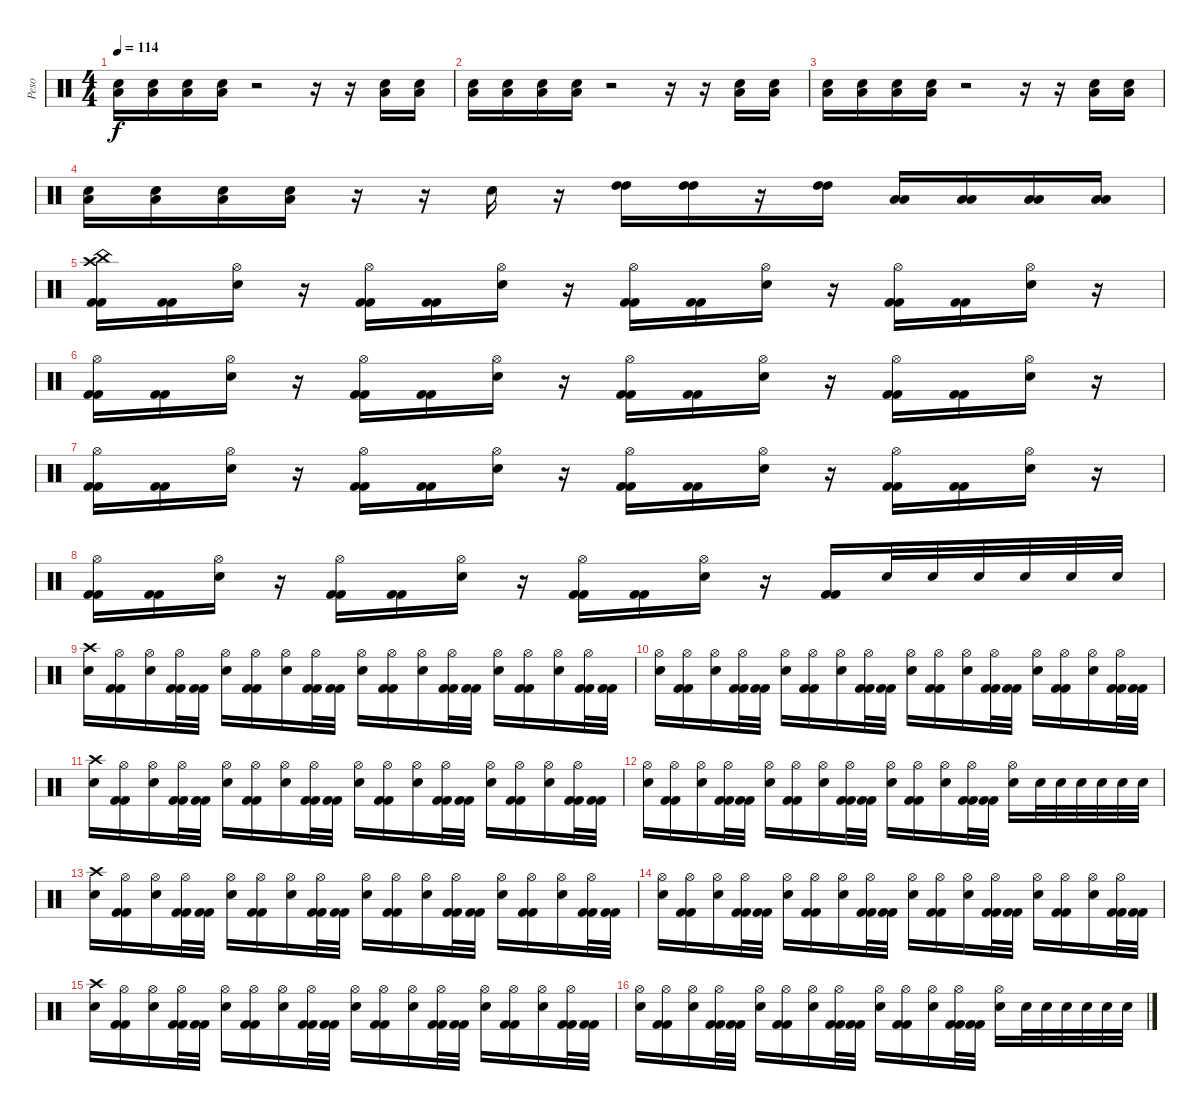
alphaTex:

\track ("Peso" "Peso") {instrument percussion}
\staff {score}
\articulation defaults
\ts (4 4)
\tempo 114
\clef neutral
\ks c
("Low Floor Tom (hit)" "Electric Snare (hit)").16{dy f} ("Low Floor Tom (hit)" "Electric Snare (hit)").16 ("Low Floor Tom (hit)" "Electric Snare (hit)").16 ("Low Floor Tom (hit)" "Electric Snare (hit)").16 r.2 r.16 r.16 ("Low Floor Tom (hit)" "Electric Snare (hit)").16 ("Low Floor Tom (hit)" "Electric Snare (hit)").16 |
("Low Floor Tom (hit)" "Electric Snare (hit)").16 ("Low Floor Tom (hit)" "Electric Snare (hit)").16 ("Low Floor Tom (hit)" "Electric Snare (hit)").16 ("Low Floor Tom (hit)" "Electric Snare (hit)").16 r.2 r.16 r.16 ("Low Floor Tom (hit)" "Electric Snare (hit)").16 ("Low Floor Tom (hit)" "Electric Snare (hit)").16 |
("Low Floor Tom (hit)" "Electric Snare (hit)").16 ("Low Floor Tom (hit)" "Electric Snare (hit)").16 ("Low Floor Tom (hit)" "Electric Snare (hit)").16 ("Low Floor Tom (hit)" "Electric Snare (hit)").16 r.2 r.16 r.16 ("Low Floor Tom (hit)" "Electric Snare (hit)").16 ("Low Floor Tom (hit)" "Electric Snare (hit)").16 |
("Low Floor Tom (hit)" "Electric Snare (hit)").16 ("Low Floor Tom (hit)" "Electric Snare (hit)").16 ("Low Floor Tom (hit)" "Electric Snare (hit)").16 ("Low Floor Tom (hit)" "Electric Snare (hit)").16 r.16 r.16 "Electric Snare (hit)".16 r.16 ("High Tom (hit)" "High Tom (hit)").16{volume 16} ("High Tom (hit)" "High Tom (hit)").16 r.16 ("High Tom (hit)" "High Tom (hit)").16 ("Low Floor Tom (hit)" "Low Floor Tom (hit)").16 ("Low Floor Tom (hit)" "Low Floor Tom (hit)").16 ("Low Floor Tom (hit)" "Low Floor Tom (hit)").16 ("Low Floor Tom (hit)" "Low Floor Tom (hit)").16 |
("Crash high (hit)" "China (hit)" "Kick (hit) 2" "Kick (hit) 2").16{volume 15} ("Kick (hit) 2" "Kick (hit) 2").16 ("Hi-Hat (open)" "Electric Snare (hit)").16 r.16 ("Hi-Hat (open)" "Kick (hit) 2" "Kick (hit) 2").16 ("Kick (hit) 2" "Kick (hit) 2").16 ("Hi-Hat (open)" "Electric Snare (hit)").16 r.16 ("Hi-Hat (open)" "Kick (hit) 2" "Kick (hit) 2").16 ("Kick (hit) 2" "Kick (hit) 2").16 ("Hi-Hat (open)" "Electric Snare (hit)").16 r.16 ("Hi-Hat (open)" "Kick (hit) 2" "Kick (hit) 2").16 ("Kick (hit) 2" "Kick (hit) 2").16 ("Hi-Hat (open)" "Electric Snare (hit)").16 r.16 |
("Hi-Hat (open)" "Kick (hit) 2" "Kick (hit) 2").16 ("Kick (hit) 2" "Kick (hit) 2").16 ("Hi-Hat (open)" "Electric Snare (hit)").16 r.16 ("Hi-Hat (open)" "Kick (hit) 2" "Kick (hit) 2").16 ("Kick (hit) 2" "Kick (hit) 2").16 ("Hi-Hat (open)" "Electric Snare (hit)").16 r.16 ("Hi-Hat (open)" "Kick (hit) 2" "Kick (hit) 2").16 ("Kick (hit) 2" "Kick (hit) 2").16 ("Hi-Hat (open)" "Electric Snare (hit)").16 r.16 ("Hi-Hat (open)" "Kick (hit) 2" "Kick (hit) 2").16 ("Kick (hit) 2" "Kick (hit) 2").16 ("Hi-Hat (open)" "Electric Snare (hit)").16 r.16 |
("Hi-Hat (open)" "Kick (hit) 2" "Kick (hit) 2").16 ("Kick (hit) 2" "Kick (hit) 2").16 ("Hi-Hat (open)" "Electric Snare (hit)").16 r.16 ("Hi-Hat (open)" "Kick (hit) 2" "Kick (hit) 2").16 ("Kick (hit) 2" "Kick (hit) 2").16 ("Hi-Hat (open)" "Electric Snare (hit)").16 r.16 ("Hi-Hat (open)" "Kick (hit) 2" "Kick (hit) 2").16 ("Kick (hit) 2" "Kick (hit) 2").16 ("Hi-Hat (open)" "Electric Snare (hit)").16 r.16 ("Hi-Hat (open)" "Kick (hit) 2" "Kick (hit) 2").16 ("Kick (hit) 2" "Kick (hit) 2").16 ("Hi-Hat (open)" "Electric Snare (hit)").16 r.16 |
("Hi-Hat (open)" "Kick (hit) 2" "Kick (hit) 2").16 ("Kick (hit) 2" "Kick (hit) 2").16 ("Hi-Hat (open)" "Electric Snare (hit)").16 r.16 ("Hi-Hat (open)" "Kick (hit) 2" "Kick (hit) 2").16 ("Kick (hit) 2" "Kick (hit) 2").16 ("Hi-Hat (open)" "Electric Snare (hit)").16 r.16 ("Hi-Hat (open)" "Kick (hit) 2" "Kick (hit) 2").16 ("Kick (hit) 2" "Kick (hit) 2").16 ("Hi-Hat (open)" "Electric Snare (hit)").16 r.16 ("Kick (hit) 2" "Kick (hit) 2").16 "Electric Snare (hit)".32 "Electric Snare (hit)".32 "Electric Snare (hit)".32 "Electric Snare (hit)".32 "Electric Snare (hit)".32 "Electric Snare (hit)".32 |
("Crash high (hit)" "Electric Snare (hit)").16 ("Hi-Hat (open)" "Kick (hit) 2" "Kick (hit) 2").16 ("Hi-Hat (open)" "Electric Snare (hit)").16 ("Hi-Hat (open)" "Kick (hit) 2" "Kick (hit) 2").32 ("Kick (hit) 2" "Kick (hit) 2").32 ("Hi-Hat (open)" "Electric Snare (hit)").16 ("Hi-Hat (open)" "Kick (hit) 2" "Kick (hit) 2").16 ("Hi-Hat (open)" "Electric Snare (hit)").16 ("Hi-Hat (open)" "Kick (hit) 2" "Kick (hit) 2").32 ("Kick (hit) 2" "Kick (hit) 2").32 ("Hi-Hat (open)" "Electric Snare (hit)").16 ("Hi-Hat (open)" "Kick (hit) 2" "Kick (hit) 2").16 ("Hi-Hat (open)" "Electric Snare (hit)").16 ("Hi-Hat (open)" "Kick (hit) 2" "Kick (hit) 2").32 ("Kick (hit) 2" "Kick (hit) 2").32 ("Hi-Hat (open)" "Electric Snare (hit)").16 ("Hi-Hat (open)" "Kick (hit) 2" "Kick (hit) 2").16 ("Hi-Hat (open)" "Electric Snare (hit)").16 ("Hi-Hat (open)" "Kick (hit) 2" "Kick (hit) 2").32 ("Kick (hit) 2" "Kick (hit) 2").32 |
("Hi-Hat (open)" "Electric Snare (hit)").16 ("Hi-Hat (open)" "Kick (hit) 2" "Kick (hit) 2").16 ("Hi-Hat (open)" "Electric Snare (hit)").16 ("Hi-Hat (open)" "Kick (hit) 2" "Kick (hit) 2").32 ("Kick (hit) 2" "Kick (hit) 2").32 ("Hi-Hat (open)" "Electric Snare (hit)").16 ("Hi-Hat (open)" "Kick (hit) 2" "Kick (hit) 2").16 ("Hi-Hat (open)" "Electric Snare (hit)").16 ("Hi-Hat (open)" "Kick (hit) 2" "Kick (hit) 2").32 ("Kick (hit) 2" "Kick (hit) 2").32 ("Hi-Hat (open)" "Electric Snare (hit)").16 ("Hi-Hat (open)" "Kick (hit) 2" "Kick (hit) 2").16 ("Hi-Hat (open)" "Electric Snare (hit)").16 ("Hi-Hat (open)" "Kick (hit) 2" "Kick (hit) 2").32 ("Kick (hit) 2" "Kick (hit) 2").32 ("Hi-Hat (open)" "Electric Snare (hit)").16 ("Hi-Hat (open)" "Kick (hit) 2" "Kick (hit) 2").16 ("Hi-Hat (open)" "Electric Snare (hit)").16 ("Hi-Hat (open)" "Kick (hit) 2" "Kick (hit) 2").32 ("Kick (hit) 2" "Kick (hit) 2").32 |
("Crash high (hit)" "Electric Snare (hit)").16 ("Hi-Hat (open)" "Kick (hit) 2" "Kick (hit) 2").16 ("Hi-Hat (open)" "Electric Snare (hit)").16 ("Hi-Hat (open)" "Kick (hit) 2" "Kick (hit) 2").32 ("Kick (hit) 2" "Kick (hit) 2").32 ("Hi-Hat (open)" "Electric Snare (hit)").16 ("Hi-Hat (open)" "Kick (hit) 2" "Kick (hit) 2").16 ("Hi-Hat (open)" "Electric Snare (hit)").16 ("Hi-Hat (open)" "Kick (hit) 2" "Kick (hit) 2").32 ("Kick (hit) 2" "Kick (hit) 2").32 ("Hi-Hat (open)" "Electric Snare (hit)").16 ("Hi-Hat (open)" "Kick (hit) 2" "Kick (hit) 2").16 ("Hi-Hat (open)" "Electric Snare (hit)").16 ("Hi-Hat (open)" "Kick (hit) 2" "Kick (hit) 2").32 ("Kick (hit) 2" "Kick (hit) 2").32 ("Hi-Hat (open)" "Electric Snare (hit)").16 ("Hi-Hat (open)" "Kick (hit) 2" "Kick (hit) 2").16 ("Hi-Hat (open)" "Electric Snare (hit)").16 ("Hi-Hat (open)" "Kick (hit) 2" "Kick (hit) 2").32 ("Kick (hit) 2" "Kick (hit) 2").32 |
("Hi-Hat (open)" "Electric Snare (hit)").16 ("Hi-Hat (open)" "Kick (hit) 2" "Kick (hit) 2").16 ("Hi-Hat (open)" "Electric Snare (hit)").16 ("Hi-Hat (open)" "Kick (hit) 2" "Kick (hit) 2").32 ("Kick (hit) 2" "Kick (hit) 2").32 ("Hi-Hat (open)" "Electric Snare (hit)").16 ("Hi-Hat (open)" "Kick (hit) 2" "Kick (hit) 2").16 ("Hi-Hat (open)" "Electric Snare (hit)").16 ("Hi-Hat (open)" "Kick (hit) 2" "Kick (hit) 2").32 ("Kick (hit) 2" "Kick (hit) 2").32 ("Hi-Hat (open)" "Electric Snare (hit)").16 ("Hi-Hat (open)" "Kick (hit) 2" "Kick (hit) 2").16 ("Hi-Hat (open)" "Electric Snare (hit)").16 ("Hi-Hat (open)" "Kick (hit) 2" "Kick (hit) 2").32 ("Kick (hit) 2" "Kick (hit) 2").32 ("Hi-Hat (open)" "Electric Snare (hit)").16 "Electric Snare (hit)".32 "Electric Snare (hit)".32 "Electric Snare (hit)".32 "Electric Snare (hit)".32 "Electric Snare (hit)".32 "Electric Snare (hit)".32 |
("Crash high (hit)" "Electric Snare (hit)").16 ("Hi-Hat (open)" "Kick (hit) 2" "Kick (hit) 2").16 ("Hi-Hat (open)" "Electric Snare (hit)").16 ("Hi-Hat (open)" "Kick (hit) 2" "Kick (hit) 2").32 ("Kick (hit) 2" "Kick (hit) 2").32 ("Hi-Hat (open)" "Electric Snare (hit)").16 ("Hi-Hat (open)" "Kick (hit) 2" "Kick (hit) 2").16 ("Hi-Hat (open)" "Electric Snare (hit)").16 ("Hi-Hat (open)" "Kick (hit) 2" "Kick (hit) 2").32 ("Kick (hit) 2" "Kick (hit) 2").32 ("Hi-Hat (open)" "Electric Snare (hit)").16 ("Hi-Hat (open)" "Kick (hit) 2" "Kick (hit) 2").16 ("Hi-Hat (open)" "Electric Snare (hit)").16 ("Hi-Hat (open)" "Kick (hit) 2" "Kick (hit) 2").32 ("Kick (hit) 2" "Kick (hit) 2").32 ("Hi-Hat (open)" "Electric Snare (hit)").16 ("Hi-Hat (open)" "Kick (hit) 2" "Kick (hit) 2").16 ("Hi-Hat (open)" "Electric Snare (hit)").16 ("Hi-Hat (open)" "Kick (hit) 2" "Kick (hit) 2").32 ("Kick (hit) 2" "Kick (hit) 2").32 |
("Hi-Hat (open)" "Electric Snare (hit)").16 ("Hi-Hat (open)" "Kick (hit) 2" "Kick (hit) 2").16 ("Hi-Hat (open)" "Electric Snare (hit)").16 ("Hi-Hat (open)" "Kick (hit) 2" "Kick (hit) 2").32 ("Kick (hit) 2" "Kick (hit) 2").32 ("Hi-Hat (open)" "Electric Snare (hit)").16 ("Hi-Hat (open)" "Kick (hit) 2" "Kick (hit) 2").16 ("Hi-Hat (open)" "Electric Snare (hit)").16 ("Hi-Hat (open)" "Kick (hit) 2" "Kick (hit) 2").32 ("Kick (hit) 2" "Kick (hit) 2").32 ("Hi-Hat (open)" "Electric Snare (hit)").16 ("Hi-Hat (open)" "Kick (hit) 2" "Kick (hit) 2").16 ("Hi-Hat (open)" "Electric Snare (hit)").16 ("Hi-Hat (open)" "Kick (hit) 2" "Kick (hit) 2").32 ("Kick (hit) 2" "Kick (hit) 2").32 ("Hi-Hat (open)" "Electric Snare (hit)").16 ("Hi-Hat (open)" "Kick (hit) 2" "Kick (hit) 2").16 ("Hi-Hat (open)" "Electric Snare (hit)").16 ("Hi-Hat (open)" "Kick (hit) 2" "Kick (hit) 2").32 ("Kick (hit) 2" "Kick (hit) 2").32 |
("Crash high (hit)" "Electric Snare (hit)").16 ("Hi-Hat (open)" "Kick (hit) 2" "Kick (hit) 2").16 ("Hi-Hat (open)" "Electric Snare (hit)").16 ("Hi-Hat (open)" "Kick (hit) 2" "Kick (hit) 2").32 ("Kick (hit) 2" "Kick (hit) 2").32 ("Hi-Hat (open)" "Electric Snare (hit)").16 ("Hi-Hat (open)" "Kick (hit) 2" "Kick (hit) 2").16 ("Hi-Hat (open)" "Electric Snare (hit)").16 ("Hi-Hat (open)" "Kick (hit) 2" "Kick (hit) 2").32 ("Kick (hit) 2" "Kick (hit) 2").32 ("Hi-Hat (open)" "Electric Snare (hit)").16 ("Hi-Hat (open)" "Kick (hit) 2" "Kick (hit) 2").16 ("Hi-Hat (open)" "Electric Snare (hit)").16 ("Hi-Hat (open)" "Kick (hit) 2" "Kick (hit) 2").32 ("Kick (hit) 2" "Kick (hit) 2").32 ("Hi-Hat (open)" "Electric Snare (hit)").16 ("Hi-Hat (open)" "Kick (hit) 2" "Kick (hit) 2").16 ("Hi-Hat (open)" "Electric Snare (hit)").16 ("Hi-Hat (open)" "Kick (hit) 2" "Kick (hit) 2").32 ("Kick (hit) 2" "Kick (hit) 2").32 |
("Hi-Hat (open)" "Electric Snare (hit)").16 ("Hi-Hat (open)" "Kick (hit) 2" "Kick (hit) 2").16 ("Hi-Hat (open)" "Electric Snare (hit)").16 ("Hi-Hat (open)" "Kick (hit) 2" "Kick (hit) 2").32 ("Kick (hit) 2" "Kick (hit) 2").32 ("Hi-Hat (open)" "Electric Snare (hit)").16 ("Hi-Hat (open)" "Kick (hit) 2" "Kick (hit) 2").16 ("Hi-Hat (open)" "Electric Snare (hit)").16 ("Hi-Hat (open)" "Kick (hit) 2" "Kick (hit) 2").32 ("Kick (hit) 2" "Kick (hit) 2").32 ("Hi-Hat (open)" "Electric Snare (hit)").16 ("Hi-Hat (open)" "Kick (hit) 2" "Kick (hit) 2").16 ("Hi-Hat (open)" "Electric Snare (hit)").16 ("Hi-Hat (open)" "Kick (hit) 2" "Kick (hit) 2").32 ("Kick (hit) 2" "Kick (hit) 2").32 ("Hi-Hat (open)" "Electric Snare (hit)").16 "Electric Snare (hit)".32 "Electric Snare (hit)".32 "Electric Snare (hit)".32 "Electric Snare (hit)".32 "Electric Snare (hit)".32 "Electric Snare (hit)".32
